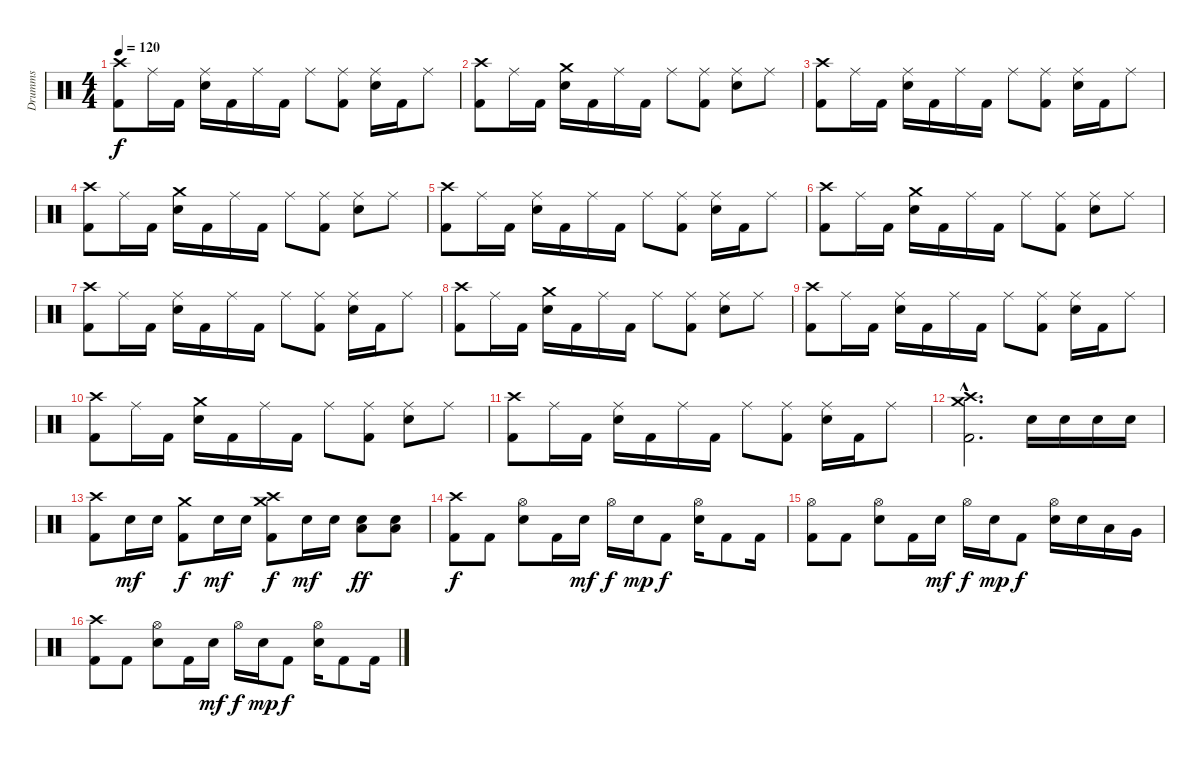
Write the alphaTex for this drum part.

\track ("Drumms" "Drumms") {instrument percussion}
\staff {score}
\articulation defaults
\ts (4 4)
\tempo 120
\clef neutral
\ks c
("Crash high (hit)" "Kick (hit) 2").8{dy f} "Ride (middle)".16 "Kick (hit) 2".16 ("Ride (middle)" "Electric Snare (hit)").16 "Kick (hit) 2".16 "Ride (middle)".16 "Kick (hit) 2".16 "Ride (middle)".8 ("Ride (middle)" "Kick (hit) 2").8 ("Ride (middle)" "Electric Snare (hit)").16 "Kick (hit) 2".16 "Ride (middle)".8 |
("Crash high (hit)" "Kick (hit) 2").8 "Ride (middle)".16 "Kick (hit) 2".16 ("Crash medium (hit)" "Electric Snare (hit)").16 "Kick (hit) 2".16 "Ride (middle)".16 "Kick (hit) 2".16 "Ride (middle)".8 ("Ride (middle)" "Kick (hit) 2").8 ("Ride (middle)" "Electric Snare (hit)").8 "Ride (middle)".8 |
("Crash high (hit)" "Kick (hit) 2").8 "Ride (middle)".16 "Kick (hit) 2".16 ("Ride (middle)" "Electric Snare (hit)").16 "Kick (hit) 2".16 "Ride (middle)".16 "Kick (hit) 2".16 "Ride (middle)".8 ("Ride (middle)" "Kick (hit) 2").8 ("Ride (middle)" "Electric Snare (hit)").16 "Kick (hit) 2".16 "Ride (middle)".8 |
("Crash high (hit)" "Kick (hit) 2").8 "Ride (middle)".16 "Kick (hit) 2".16 ("Crash medium (hit)" "Electric Snare (hit)").16 "Kick (hit) 2".16 "Ride (middle)".16 "Kick (hit) 2".16 "Ride (middle)".8 ("Ride (middle)" "Kick (hit) 2").8 ("Ride (middle)" "Electric Snare (hit)").8 "Ride (middle)".8 |
("Crash high (hit)" "Kick (hit) 2").8 "Ride (middle)".16 "Kick (hit) 2".16 ("Ride (middle)" "Electric Snare (hit)").16 "Kick (hit) 2".16 "Ride (middle)".16 "Kick (hit) 2".16 "Ride (middle)".8 ("Ride (middle)" "Kick (hit) 2").8 ("Ride (middle)" "Electric Snare (hit)").16 "Kick (hit) 2".16 "Ride (middle)".8 |
("Crash high (hit)" "Kick (hit) 2").8 "Ride (middle)".16 "Kick (hit) 2".16 ("Crash medium (hit)" "Electric Snare (hit)").16 "Kick (hit) 2".16 "Ride (middle)".16 "Kick (hit) 2".16 "Ride (middle)".8 ("Ride (middle)" "Kick (hit) 2").8 ("Ride (middle)" "Electric Snare (hit)").8 "Ride (middle)".8 |
("Crash high (hit)" "Kick (hit) 2").8 "Ride (middle)".16 "Kick (hit) 2".16 ("Ride (middle)" "Electric Snare (hit)").16 "Kick (hit) 2".16 "Ride (middle)".16 "Kick (hit) 2".16 "Ride (middle)".8 ("Ride (middle)" "Kick (hit) 2").8 ("Ride (middle)" "Electric Snare (hit)").16 "Kick (hit) 2".16 "Ride (middle)".8 |
("Crash high (hit)" "Kick (hit) 2").8 "Ride (middle)".16 "Kick (hit) 2".16 ("Crash medium (hit)" "Electric Snare (hit)").16 "Kick (hit) 2".16 "Ride (middle)".16 "Kick (hit) 2".16 "Ride (middle)".8 ("Ride (middle)" "Kick (hit) 2").8 ("Ride (middle)" "Electric Snare (hit)").8 "Ride (middle)".8 |
("Crash high (hit)" "Kick (hit) 2").8 "Ride (middle)".16 "Kick (hit) 2".16 ("Ride (middle)" "Electric Snare (hit)").16 "Kick (hit) 2".16 "Ride (middle)".16 "Kick (hit) 2".16 "Ride (middle)".8 ("Ride (middle)" "Kick (hit) 2").8 ("Ride (middle)" "Electric Snare (hit)").16 "Kick (hit) 2".16 "Ride (middle)".8 |
("Crash high (hit)" "Kick (hit) 2").8 "Ride (middle)".16 "Kick (hit) 2".16 ("Crash medium (hit)" "Electric Snare (hit)").16 "Kick (hit) 2".16 "Ride (middle)".16 "Kick (hit) 2".16 "Ride (middle)".8 ("Ride (middle)" "Kick (hit) 2").8 ("Ride (middle)" "Electric Snare (hit)").8 "Ride (middle)".8 |
("Crash high (hit)" "Kick (hit) 2").8 "Ride (middle)".16 "Kick (hit) 2".16 ("Ride (middle)" "Electric Snare (hit)").16 "Kick (hit) 2".16 "Ride (middle)".16 "Kick (hit) 2".16 "Ride (middle)".8 ("Ride (middle)" "Kick (hit) 2").8 ("Ride (middle)" "Electric Snare (hit)").16 "Kick (hit) 2".16 "Ride (middle)".8 |
("Crash high (hit)"{hac} "Crash medium (hit)"{hac} "Kick (hit) 2"{hac}).2{d} "Electric Snare (hit)".16 "Electric Snare (hit)".16 "Electric Snare (hit)".16 "Electric Snare (hit)".16 |
("Crash high (hit)" "Kick (hit) 2").8 "Electric Snare (hit)".16{dy mf} "Electric Snare (hit)".16 ("Crash medium (hit)" "Kick (hit) 2").8{dy f} "Electric Snare (hit)".16{dy mf} "Electric Snare (hit)".16 ("Crash high (hit)" "Crash medium (hit)" "Kick (hit) 2").8{dy f} "Electric Snare (hit)".16{dy mf} "Electric Snare (hit)".16 ("Low Floor Tom (hit)" "Electric Snare (hit)").8{dy ff} ("Low Floor Tom (hit)" "Electric Snare (hit)").8 |
("Crash high (hit)" "Kick (hit) 2").8{dy f} "Kick (hit) 2".8 ("Hi-Hat (open)" "Electric Snare (hit)").8 "Kick (hit) 2".16 "Electric Snare (hit)".16{dy mf} "Hi-Hat (open)".16{dy f} "Electric Snare (hit)".16{dy mp} "Kick (hit) 2".8{dy f} ("Hi-Hat (open)" "Electric Snare (hit)").16 "Kick (hit) 2".8 "Kick (hit) 2".16 |
("Hi-Hat (open)" "Kick (hit) 2").8 "Kick (hit) 2".8 ("Hi-Hat (open)" "Electric Snare (hit)").8 "Kick (hit) 2".16 "Electric Snare (hit)".16{dy mf} "Hi-Hat (open)".16{dy f} "Electric Snare (hit)".16{dy mp} "Kick (hit) 2".8{dy f} ("Hi-Hat (open)" "Electric Snare (hit)").16 "Electric Snare (hit)".16 "Low Tom (hit)".16 "Very Low Tom (hit)".16 |
("Crash high (hit)" "Kick (hit) 2").8 "Kick (hit) 2".8 ("Hi-Hat (open)" "Electric Snare (hit)").8 "Kick (hit) 2".16 "Electric Snare (hit)".16{dy mf} "Hi-Hat (open)".16{dy f} "Electric Snare (hit)".16{dy mp} "Kick (hit) 2".8{dy f} ("Hi-Hat (open)" "Electric Snare (hit)").16 "Kick (hit) 2".8 "Kick (hit) 2".16
